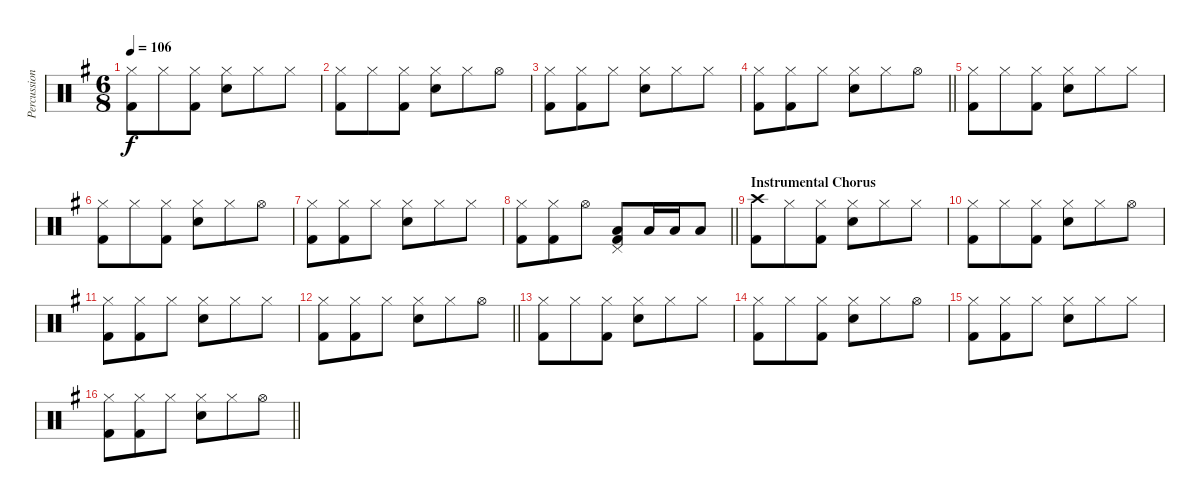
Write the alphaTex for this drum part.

\track ("Percussion" "Percussion") {instrument percussion}
\staff {score}
\articulation defaults
\ts (6 8)
\tempo 106
\clef neutral
\ks g
("Hi-Hat (closed)" "Kick (hit) 2").8{dy f} "Hi-Hat (closed)".8 ("Hi-Hat (closed)" "Kick (hit) 2").8 ("Hi-Hat (closed)" "Snare (hit) 2").8 "Hi-Hat (closed)".8 "Hi-Hat (closed)".8 |
("Hi-Hat (closed)" "Kick (hit) 2").8 "Hi-Hat (closed)".8 ("Hi-Hat (closed)" "Kick (hit) 2").8 ("Hi-Hat (closed)" "Snare (hit) 2").8 "Hi-Hat (closed)".8 "Hi-Hat (open)".8 |
("Hi-Hat (closed)" "Kick (hit) 2").8 ("Hi-Hat (closed)" "Kick (hit) 2").8 "Hi-Hat (closed)".8 ("Hi-Hat (closed)" "Snare (hit) 2").8 "Hi-Hat (closed)".8 "Hi-Hat (closed)".8 |
\barLineRight lightlight
("Hi-Hat (closed)" "Kick (hit) 2").8 ("Hi-Hat (closed)" "Kick (hit) 2").8 "Hi-Hat (closed)".8 ("Hi-Hat (closed)" "Snare (hit) 2").8 "Hi-Hat (closed)".8 "Hi-Hat (open)".8 |
("Hi-Hat (closed)" "Kick (hit) 2").8 "Hi-Hat (closed)".8 ("Hi-Hat (closed)" "Kick (hit) 2").8 ("Hi-Hat (closed)" "Snare (hit) 2").8 "Hi-Hat (closed)".8 "Hi-Hat (closed)".8 |
("Hi-Hat (closed)" "Kick (hit) 2").8 "Hi-Hat (closed)".8 ("Hi-Hat (closed)" "Kick (hit) 2").8 ("Hi-Hat (closed)" "Snare (hit) 2").8 "Hi-Hat (closed)".8 "Hi-Hat (open)".8 |
("Hi-Hat (closed)" "Kick (hit) 2").8 ("Hi-Hat (closed)" "Kick (hit) 2").8 "Hi-Hat (closed)".8 ("Hi-Hat (closed)" "Snare (hit) 2").8 "Hi-Hat (closed)".8 "Hi-Hat (closed)".8 |
\barLineRight lightlight
("Hi-Hat (closed)" "Kick (hit) 2").8 ("Hi-Hat (closed)" "Kick (hit) 2").8 "Hi-Hat (open)".8 ("Low Floor Tom (hit)" "Pedal Hi-Hat (hit)" "Kick (hit) 2").8 "Low Tom (hit)".16 "Low Tom (hit)".16 "Low Floor Tom (hit)".8 |
\section ("" "Instrumental Chorus")
("Crash high (hit)" "Kick (hit) 2").8 "Hi-Hat (closed)".8 ("Hi-Hat (closed)" "Kick (hit) 2").8 ("Hi-Hat (closed)" "Snare (hit) 2").8 "Hi-Hat (closed)".8 "Hi-Hat (closed)".8 |
("Hi-Hat (closed)" "Kick (hit) 2").8 "Hi-Hat (closed)".8 ("Hi-Hat (closed)" "Kick (hit) 2").8 ("Hi-Hat (closed)" "Snare (hit) 2").8 "Hi-Hat (closed)".8 "Hi-Hat (open)".8 |
("Hi-Hat (closed)" "Kick (hit) 2").8 ("Hi-Hat (closed)" "Kick (hit) 2").8 "Hi-Hat (closed)".8 ("Hi-Hat (closed)" "Snare (hit) 2").8 "Hi-Hat (closed)".8 "Hi-Hat (closed)".8 |
\barLineRight lightlight
("Hi-Hat (closed)" "Kick (hit) 2").8 ("Hi-Hat (closed)" "Kick (hit) 2").8 "Hi-Hat (closed)".8 ("Hi-Hat (closed)" "Snare (hit) 2").8 "Hi-Hat (closed)".8 "Hi-Hat (open)".8 |
("Hi-Hat (closed)" "Kick (hit) 2").8 "Hi-Hat (closed)".8 ("Hi-Hat (closed)" "Kick (hit) 2").8 ("Hi-Hat (closed)" "Snare (hit) 2").8 "Hi-Hat (closed)".8 "Hi-Hat (closed)".8 |
("Hi-Hat (closed)" "Kick (hit) 2").8 "Hi-Hat (closed)".8 ("Hi-Hat (closed)" "Kick (hit) 2").8 ("Hi-Hat (closed)" "Snare (hit) 2").8 "Hi-Hat (closed)".8 "Hi-Hat (open)".8 |
("Hi-Hat (closed)" "Kick (hit) 2").8 ("Hi-Hat (closed)" "Kick (hit) 2").8 "Hi-Hat (closed)".8 ("Hi-Hat (closed)" "Snare (hit) 2").8 "Hi-Hat (closed)".8 "Hi-Hat (closed)".8 |
\barLineRight lightlight
("Hi-Hat (closed)" "Kick (hit) 2").8 ("Hi-Hat (closed)" "Kick (hit) 2").8 "Hi-Hat (closed)".8 ("Hi-Hat (closed)" "Snare (hit) 2").8 "Hi-Hat (closed)".8 "Hi-Hat (open)".8
